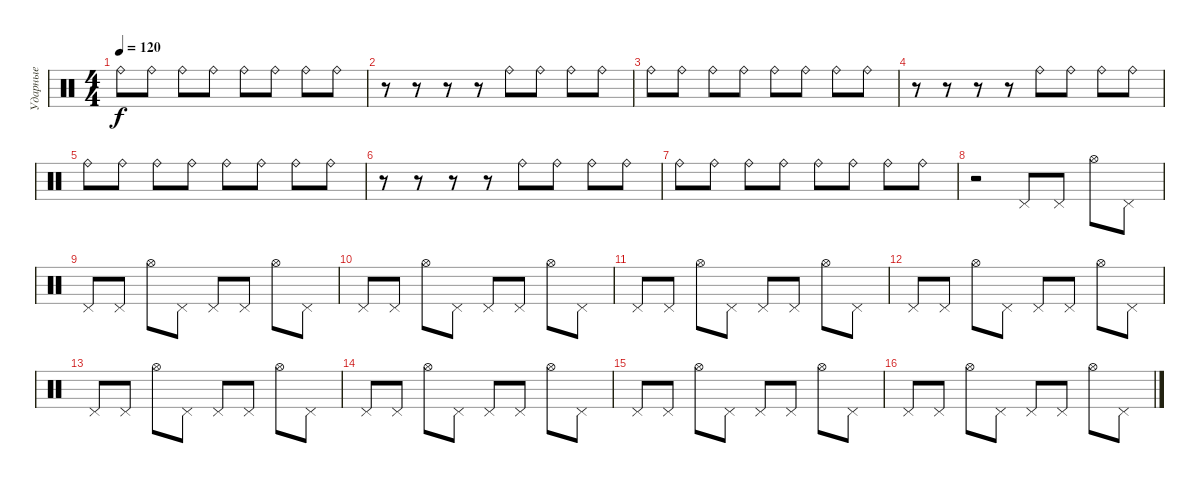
\track ("Ударные" "Ударные") {instrument percussion}
\staff {score}
\articulation defaults
\ts (4 4)
\tempo 120
\clef neutral
\ks c "Ride (bell)".8{dy f} "Ride (bell)".8 "Ride (bell)".8 "Ride (bell)".8 "Ride (bell)".8 "Ride (bell)".8 "Ride (bell)".8 "Ride (bell)".8
|
r.8 r.8 r.8 r.8 "Ride (bell)".8 "Ride (bell)".8 "Ride (bell)".8 "Ride (bell)".8 |
"Ride (bell)".8 "Ride (bell)".8 "Ride (bell)".8 "Ride (bell)".8 "Ride (bell)".8 "Ride (bell)".8 "Ride (bell)".8 "Ride (bell)".8 |
r.8 r.8 r.8 r.8 "Ride (bell)".8 "Ride (bell)".8 "Ride (bell)".8 "Ride (bell)".8 |
"Ride (bell)".8 "Ride (bell)".8 "Ride (bell)".8 "Ride (bell)".8 "Ride (bell)".8 "Ride (bell)".8 "Ride (bell)".8 "Ride (bell)".8 |
r.8 r.8 r.8 r.8 "Ride (bell)".8 "Ride (bell)".8 "Ride (bell)".8 "Ride (bell)".8 |
"Ride (bell)".8 "Ride (bell)".8 "Ride (bell)".8 "Ride (bell)".8 "Ride (bell)".8 "Ride (bell)".8 "Ride (bell)".8 "Ride (bell)".8 |
r.2 "Pedal Hi-Hat (hit)".8 "Pedal Hi-Hat (hit)".8 "Hi-Hat (open)".8 "Pedal Hi-Hat (hit)".8 |
"Pedal Hi-Hat (hit)".8 "Pedal Hi-Hat (hit)".8 "Hi-Hat (open)".8 "Pedal Hi-Hat (hit)".8 "Pedal Hi-Hat (hit)".8 "Pedal Hi-Hat (hit)".8 "Hi-Hat (open)".8 "Pedal Hi-Hat (hit)".8 |
"Pedal Hi-Hat (hit)".8 "Pedal Hi-Hat (hit)".8 "Hi-Hat (open)".8 "Pedal Hi-Hat (hit)".8 "Pedal Hi-Hat (hit)".8 "Pedal Hi-Hat (hit)".8 "Hi-Hat (open)".8 "Pedal Hi-Hat (hit)".8 |
"Pedal Hi-Hat (hit)".8 "Pedal Hi-Hat (hit)".8 "Hi-Hat (open)".8 "Pedal Hi-Hat (hit)".8 "Pedal Hi-Hat (hit)".8 "Pedal Hi-Hat (hit)".8 "Hi-Hat (open)".8 "Pedal Hi-Hat (hit)".8 |
"Pedal Hi-Hat (hit)".8 "Pedal Hi-Hat (hit)".8 "Hi-Hat (open)".8 "Pedal Hi-Hat (hit)".8 "Pedal Hi-Hat (hit)".8 "Pedal Hi-Hat (hit)".8 "Hi-Hat (open)".8 "Pedal Hi-Hat (hit)".8 |
"Pedal Hi-Hat (hit)".8 "Pedal Hi-Hat (hit)".8 "Hi-Hat (open)".8 "Pedal Hi-Hat (hit)".8 "Pedal Hi-Hat (hit)".8 "Pedal Hi-Hat (hit)".8 "Hi-Hat (open)".8 "Pedal Hi-Hat (hit)".8 |
"Pedal Hi-Hat (hit)".8 "Pedal Hi-Hat (hit)".8 "Hi-Hat (open)".8 "Pedal Hi-Hat (hit)".8 "Pedal Hi-Hat (hit)".8 "Pedal Hi-Hat (hit)".8 "Hi-Hat (open)".8 "Pedal Hi-Hat (hit)".8 |
"Pedal Hi-Hat (hit)".8 "Pedal Hi-Hat (hit)".8 "Hi-Hat (open)".8 "Pedal Hi-Hat (hit)".8 "Pedal Hi-Hat (hit)".8 "Pedal Hi-Hat (hit)".8 "Hi-Hat (open)".8 "Pedal Hi-Hat (hit)".8 |
"Pedal Hi-Hat (hit)".8 "Pedal Hi-Hat (hit)".8 "Hi-Hat (open)".8 "Pedal Hi-Hat (hit)".8 "Pedal Hi-Hat (hit)".8 "Pedal Hi-Hat (hit)".8 "Hi-Hat (open)".8 "Pedal Hi-Hat (hit)".8
